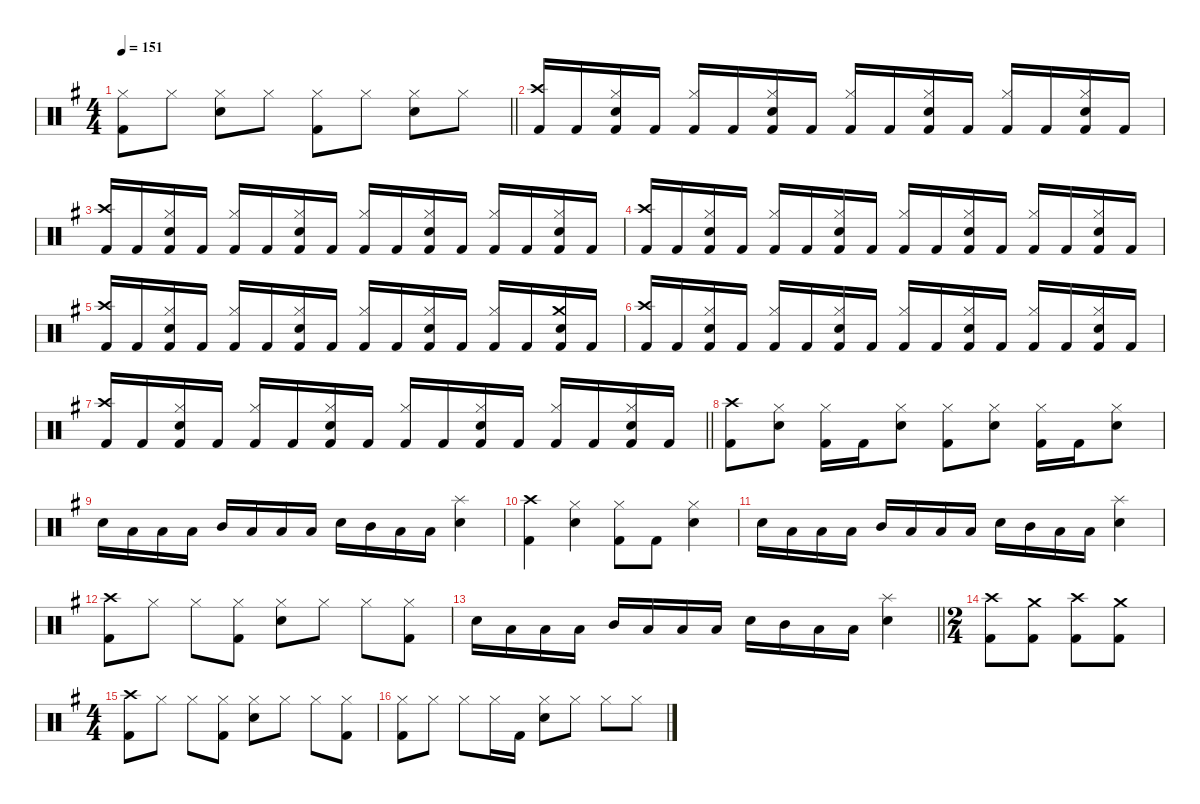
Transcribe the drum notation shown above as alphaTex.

\defaultSystemsLayout 4
\hideDynamics
\bracketExtendMode nobrackets
\singleTrackTrackNamePolicy hidden
\multiTrackTrackNamePolicy hidden
\otherSystemsTrackNameOrientation horizontal
\track ("Lars Ulrich" "drm.") {instrument percussion}
\staff {score}
\articulation defaults
\ts (4 4)
\tempo 151
\clef neutral
\barLineRight lightlight
\ks eminor
("Hi-Hat (closed)"{acc forcenatural} "Kick (hit) 2"{acc forcenatural}).8{dy f beam Down} "Hi-Hat (closed)"{acc forcenatural}.8{beam Down} ("Hi-Hat (closed)"{acc forcenatural} "Snare (hit) 2"{acc forcenatural}).8{beam Down} "Hi-Hat (closed)"{acc forcenatural}.8{beam Down} ("Hi-Hat (closed)"{acc forcenatural} "Kick (hit) 2"{acc forcenatural}).8{beam Down} "Hi-Hat (closed)"{acc forcenatural}.8{beam Down} ("Hi-Hat (closed)"{acc forcenatural} "Snare (hit) 2"{acc forcenatural}).8{beam Down} "Hi-Hat (closed)"{acc forcenatural}.8{beam Down} |
("Crash high (hit)"{acc forcenatural} "Kick (hit) 2"{acc forcenatural}).16{beam Up} "Kick (hit) 2"{acc forcenatural}.16{beam Up} ("Hi-Hat (closed)"{acc forcenatural} "Snare (hit) 2"{acc forcenatural} "Kick (hit) 2"{acc forcenatural}).16{beam Up} "Kick (hit) 2"{acc forcenatural}.16{beam Up} ("Hi-Hat (closed)"{acc forcenatural} "Kick (hit) 2"{acc forcenatural}).16{beam Up} "Kick (hit) 2"{acc forcenatural}.16{beam Up} ("Hi-Hat (closed)"{acc forcenatural} "Snare (hit) 2"{acc forcenatural} "Kick (hit) 2"{acc forcenatural}).16{beam Up} "Kick (hit) 2"{acc forcenatural}.16{beam Up} ("Hi-Hat (closed)"{acc forcenatural} "Kick (hit) 2"{acc forcenatural}).16{beam Up} "Kick (hit) 2"{acc forcenatural}.16{beam Up} ("Hi-Hat (closed)"{acc forcenatural} "Snare (hit) 2"{acc forcenatural} "Kick (hit) 2"{acc forcenatural}).16{beam Up} "Kick (hit) 2"{acc forcenatural}.16{beam Up} ("Hi-Hat (closed)"{acc forcenatural} "Kick (hit) 2"{acc forcenatural}).16{beam Up} "Kick (hit) 2"{acc forcenatural}.16{beam Up} ("Hi-Hat (closed)"{acc forcenatural} "Snare (hit) 2"{acc forcenatural} "Kick (hit) 2"{acc forcenatural}).16{beam Up} "Kick (hit) 2"{acc forcenatural}.16{beam Up} |
("Crash high (hit)"{acc forcenatural} "Kick (hit) 2"{acc forcenatural}).16{beam Up} "Kick (hit) 2"{acc forcenatural}.16{beam Up} ("Hi-Hat (closed)"{acc forcenatural} "Snare (hit) 2"{acc forcenatural} "Kick (hit) 2"{acc forcenatural}).16{beam Up} "Kick (hit) 2"{acc forcenatural}.16{beam Up} ("Hi-Hat (closed)"{acc forcenatural} "Kick (hit) 2"{acc forcenatural}).16{beam Up} "Kick (hit) 2"{acc forcenatural}.16{beam Up} ("Hi-Hat (closed)"{acc forcenatural} "Snare (hit) 2"{acc forcenatural} "Kick (hit) 2"{acc forcenatural}).16{beam Up} "Kick (hit) 2"{acc forcenatural}.16{beam Up} ("Hi-Hat (closed)"{acc forcenatural} "Kick (hit) 2"{acc forcenatural}).16{beam Up} "Kick (hit) 2"{acc forcenatural}.16{beam Up} ("Hi-Hat (closed)"{acc forcenatural} "Snare (hit) 2"{acc forcenatural} "Kick (hit) 2"{acc forcenatural}).16{beam Up} "Kick (hit) 2"{acc forcenatural}.16{beam Up} ("Hi-Hat (closed)"{acc forcenatural} "Kick (hit) 2"{acc forcenatural}).16{beam Up} "Kick (hit) 2"{acc forcenatural}.16{beam Up} ("Hi-Hat (closed)"{acc forcenatural} "Snare (hit) 2"{acc forcenatural} "Kick (hit) 2"{acc forcenatural}).16{beam Up} "Kick (hit) 2"{acc forcenatural}.16{beam Up} |
("Crash high (hit)"{acc forcenatural} "Kick (hit) 2"{acc forcenatural}).16{beam Up} "Kick (hit) 2"{acc forcenatural}.16{beam Up} ("Hi-Hat (closed)"{acc forcenatural} "Snare (hit) 2"{acc forcenatural} "Kick (hit) 2"{acc forcenatural}).16{beam Up} "Kick (hit) 2"{acc forcenatural}.16{beam Up} ("Hi-Hat (closed)"{acc forcenatural} "Kick (hit) 2"{acc forcenatural}).16{beam Up} "Kick (hit) 2"{acc forcenatural}.16{beam Up} ("Hi-Hat (closed)"{acc forcenatural} "Snare (hit) 2"{acc forcenatural} "Kick (hit) 2"{acc forcenatural}).16{beam Up} "Kick (hit) 2"{acc forcenatural}.16{beam Up} ("Hi-Hat (closed)"{acc forcenatural} "Kick (hit) 2"{acc forcenatural}).16{beam Up} "Kick (hit) 2"{acc forcenatural}.16{beam Up} ("Hi-Hat (closed)"{acc forcenatural} "Snare (hit) 2"{acc forcenatural} "Kick (hit) 2"{acc forcenatural}).16{beam Up} "Kick (hit) 2"{acc forcenatural}.16{beam Up} ("Hi-Hat (closed)"{acc forcenatural} "Kick (hit) 2"{acc forcenatural}).16{beam Up} "Kick (hit) 2"{acc forcenatural}.16{beam Up} ("Hi-Hat (closed)"{acc forcenatural} "Snare (hit) 2"{acc forcenatural} "Kick (hit) 2"{acc forcenatural}).16{beam Up} "Kick (hit) 2"{acc forcenatural}.16{beam Up} |
("Crash high (hit)"{acc forcenatural} "Kick (hit) 2"{acc forcenatural}).16{beam Up} "Kick (hit) 2"{acc forcenatural}.16{beam Up} ("Hi-Hat (closed)"{acc forcenatural} "Snare (hit) 2"{acc forcenatural} "Kick (hit) 2"{acc forcenatural}).16{beam Up} "Kick (hit) 2"{acc forcenatural}.16{beam Up} ("Hi-Hat (closed)"{acc forcenatural} "Kick (hit) 2"{acc forcenatural}).16{beam Up} "Kick (hit) 2"{acc forcenatural}.16{beam Up} ("Hi-Hat (closed)"{acc forcenatural} "Snare (hit) 2"{acc forcenatural} "Kick (hit) 2"{acc forcenatural}).16{beam Up} "Kick (hit) 2"{acc forcenatural}.16{beam Up} ("Hi-Hat (closed)"{acc forcenatural} "Kick (hit) 2"{acc forcenatural}).16{beam Up} "Kick (hit) 2"{acc forcenatural}.16{beam Up} ("Hi-Hat (closed)"{acc forcenatural} "Snare (hit) 2"{acc forcenatural} "Kick (hit) 2"{acc forcenatural}).16{beam Up} "Kick (hit) 2"{acc forcenatural}.16{beam Up} ("Hi-Hat (closed)"{acc forcenatural} "Kick (hit) 2"{acc forcenatural}).16{beam Up} "Kick (hit) 2"{acc forcenatural}.16{beam Up} ("Crash medium (hit)"{acc forcenatural} "Snare (hit) 2"{acc forcenatural} "Kick (hit) 2"{acc forcenatural}).16{beam Up} "Kick (hit) 2"{acc forcenatural}.16{beam Up} |
("Crash high (hit)"{acc forcenatural} "Kick (hit) 2"{acc forcenatural}).16{beam Up} "Kick (hit) 2"{acc forcenatural}.16{beam Up} ("Hi-Hat (closed)"{acc forcenatural} "Snare (hit) 2"{acc forcenatural} "Kick (hit) 2"{acc forcenatural}).16{beam Up} "Kick (hit) 2"{acc forcenatural}.16{beam Up} ("Hi-Hat (closed)"{acc forcenatural} "Kick (hit) 2"{acc forcenatural}).16{beam Up} "Kick (hit) 2"{acc forcenatural}.16{beam Up} ("Hi-Hat (closed)"{acc forcenatural} "Snare (hit) 2"{acc forcenatural} "Kick (hit) 2"{acc forcenatural}).16{beam Up} "Kick (hit) 2"{acc forcenatural}.16{beam Up} ("Hi-Hat (closed)"{acc forcenatural} "Kick (hit) 2"{acc forcenatural}).16{beam Up} "Kick (hit) 2"{acc forcenatural}.16{beam Up} ("Hi-Hat (closed)"{acc forcenatural} "Snare (hit) 2"{acc forcenatural} "Kick (hit) 2"{acc forcenatural}).16{beam Up} "Kick (hit) 2"{acc forcenatural}.16{beam Up} ("Hi-Hat (closed)"{acc forcenatural} "Kick (hit) 2"{acc forcenatural}).16{beam Up} "Kick (hit) 2"{acc forcenatural}.16{beam Up} ("Hi-Hat (closed)"{acc forcenatural} "Snare (hit) 2"{acc forcenatural} "Kick (hit) 2"{acc forcenatural}).16{beam Up} "Kick (hit) 2"{acc forcenatural}.16{beam Up} |
\barLineRight lightlight
("Crash high (hit)"{acc forcenatural} "Kick (hit) 2"{acc forcenatural}).16{beam Up} "Kick (hit) 2"{acc forcenatural}.16{beam Up} ("Hi-Hat (closed)"{acc forcenatural} "Snare (hit) 2"{acc forcenatural} "Kick (hit) 2"{acc forcenatural}).16{beam Up} "Kick (hit) 2"{acc forcenatural}.16{beam Up} ("Hi-Hat (closed)"{acc forcenatural} "Kick (hit) 2"{acc forcenatural}).16{beam Up} "Kick (hit) 2"{acc forcenatural}.16{beam Up} ("Hi-Hat (closed)"{acc forcenatural} "Snare (hit) 2"{acc forcenatural} "Kick (hit) 2"{acc forcenatural}).16{beam Up} "Kick (hit) 2"{acc forcenatural}.16{beam Up} ("Hi-Hat (closed)"{acc forcenatural} "Kick (hit) 2"{acc forcenatural}).16{beam Up} "Kick (hit) 2"{acc forcenatural}.16{beam Up} ("Hi-Hat (closed)"{acc forcenatural} "Snare (hit) 2"{acc forcenatural} "Kick (hit) 2"{acc forcenatural}).16{beam Up} "Kick (hit) 2"{acc forcenatural}.16{beam Up} ("Hi-Hat (closed)"{acc forcenatural} "Kick (hit) 2"{acc forcenatural}).16{beam Up} "Kick (hit) 2"{acc forcenatural}.16{beam Up} ("Hi-Hat (closed)"{acc forcenatural} "Snare (hit) 2"{acc forcenatural} "Kick (hit) 2"{acc forcenatural}).16{beam Up} "Kick (hit) 2"{acc forcenatural}.16{beam Up} |
("Crash high (hit)"{acc forcenatural} "Kick (hit) 2"{acc forcenatural}).8{beam Down} ("Hi-Hat (closed)"{acc forcenatural} "Snare (hit) 2"{acc forcenatural}).8{beam Down} ("Hi-Hat (closed)"{acc forcenatural} "Kick (hit) 2"{acc forcenatural}).16{beam Down} "Kick (hit) 2"{acc forcenatural}.16{beam Down} ("Hi-Hat (closed)"{acc forcenatural} "Snare (hit) 2"{acc forcenatural}).8{beam Down} ("Hi-Hat (closed)"{acc forcenatural} "Kick (hit) 2"{acc forcenatural}).8{beam Down} ("Hi-Hat (closed)"{acc forcenatural} "Snare (hit) 2"{acc forcenatural}).8{beam Down} ("Hi-Hat (closed)"{acc forcenatural} "Kick (hit) 2"{acc forcenatural}).16{beam Down} "Kick (hit) 2"{acc forcenatural}.16{beam Down} ("Hi-Hat (closed)"{acc forcenatural} "Snare (hit) 2"{acc forcenatural}).8{beam Down} |
"Snare (hit) 2"{acc forcenatural}.16{beam Down} "Low Tom (hit)"{acc forcenatural}.16{beam Down} "Low Tom (hit)"{acc forcenatural}.16{beam Down} "Low Tom (hit)"{acc forcenatural}.16{beam Down} "Mid Tom (hit)"{acc forcenatural}.16{beam Up} "Low Tom (hit)"{acc forcenatural}.16{beam Up} "Low Tom (hit)"{acc forcenatural}.16{beam Up} "Low Tom (hit)"{acc forcenatural}.16{beam Up} "Snare (hit) 2"{acc forcenatural}.16{beam Down} "Mid Tom (hit)"{acc forcenatural}.16{beam Down} "Low Tom (hit)"{acc forcenatural}.16{beam Down} "Low Tom (hit)"{acc forcenatural}.16{beam Down} ("Splash (hit)"{acc forcenatural} "Snare (hit) 2"{acc forcenatural}).4{beam Down} |
("Crash high (hit)"{acc forcenatural} "Kick (hit) 2"{acc forcenatural}).4{beam Down} ("Hi-Hat (closed)"{acc forcenatural} "Snare (hit) 2"{acc forcenatural}).4{beam Down} ("Hi-Hat (closed)"{acc forcenatural} "Kick (hit) 2"{acc forcenatural}).8{beam Down} "Kick (hit) 2"{acc forcenatural}.8{beam Down} ("Hi-Hat (closed)"{acc forcenatural} "Snare (hit) 2"{acc forcenatural}).4{beam Down} |
"Snare (hit) 2"{acc forcenatural}.16{beam Down} "Low Tom (hit)"{acc forcenatural}.16{beam Down} "Low Tom (hit)"{acc forcenatural}.16{beam Down} "Low Tom (hit)"{acc forcenatural}.16{beam Down} "Mid Tom (hit)"{acc forcenatural}.16{beam Up} "Low Tom (hit)"{acc forcenatural}.16{beam Up} "Low Tom (hit)"{acc forcenatural}.16{beam Up} "Low Tom (hit)"{acc forcenatural}.16{beam Up} "Snare (hit) 2"{acc forcenatural}.16{beam Down} "Mid Tom (hit)"{acc forcenatural}.16{beam Down} "Low Tom (hit)"{acc forcenatural}.16{beam Down} "Low Tom (hit)"{acc forcenatural}.16{beam Down} ("Splash (hit)"{acc forcenatural} "Snare (hit) 2"{acc forcenatural}).4{beam Down} |
("Crash high (hit)"{acc forcenatural} "Kick (hit) 2"{acc forcenatural}).8{beam Down} "Hi-Hat (closed)"{acc forcenatural}.8{beam Down} "Hi-Hat (closed)"{acc forcenatural}.8{beam Down} ("Hi-Hat (closed)"{acc forcenatural} "Kick (hit) 2"{acc forcenatural}).8{beam Down} ("Hi-Hat (closed)"{acc forcenatural} "Snare (hit) 2"{acc forcenatural}).8{beam Down} "Hi-Hat (closed)"{acc forcenatural}.8{beam Down} "Hi-Hat (closed)"{acc forcenatural}.8{beam Down} ("Hi-Hat (closed)"{acc forcenatural} "Kick (hit) 2"{acc forcenatural}).8{beam Down} |
\barLineRight lightlight "Snare (hit) 2"{acc forcenatural}.16{beam Down} "Low Tom (hit)"{acc forcenatural}.16{beam Down} "Low Tom (hit)"{acc forcenatural}.16{beam Down} "Low Tom (hit)"{acc forcenatural}.16{beam Down} "Mid Tom (hit)"{acc forcenatural}.16{beam Up} "Low Tom (hit)"{acc forcenatural}.16{beam Up} "Low Tom (hit)"{acc forcenatural}.16{beam Up} "Low Tom (hit)"{acc forcenatural}.16{beam Up} "Snare (hit) 2"{acc forcenatural}.16{beam Down} "Mid Tom (hit)"{acc forcenatural}.16{beam Down} "Low Tom (hit)"{acc forcenatural}.16{beam Down} "Low Tom (hit)"{acc forcenatural}.16{beam Down}
("Splash (hit)"{acc forcenatural} "Snare (hit) 2"{acc forcenatural}).4{beam Down} |
\ts (2 4)
\beaming (8 2 2)
("Crash high (hit)"{acc forcenatural} "Kick (hit) 2"{acc forcenatural}).8{beam Down} ("Crash medium (hit)"{acc forcenatural} "Kick (hit) 2"{acc forcenatural}).8{beam Down} ("Crash high (hit)"{acc forcenatural} "Kick (hit) 2"{acc forcenatural}).8{beam Down} ("Crash medium (hit)"{acc forcenatural} "Kick (hit) 2"{acc forcenatural}).8{beam Down} |
\ts (4 4)
\beaming (8 2 2 2 2)
("Crash high (hit)"{acc forcenatural} "Kick (hit) 2"{acc forcenatural}).8{beam Down} "Hi-Hat (closed)"{acc forcenatural}.8{beam Down} "Hi-Hat (closed)"{acc forcenatural}.8{beam Down} ("Hi-Hat (closed)"{acc forcenatural} "Kick (hit) 2"{acc forcenatural}).8{beam Down} ("Hi-Hat (closed)"{acc forcenatural} "Snare (hit) 2"{acc forcenatural}).8{beam Down} "Hi-Hat (closed)"{acc forcenatural}.8{beam Down} "Hi-Hat (closed)"{acc forcenatural}.8{beam Down} ("Hi-Hat (closed)"{acc forcenatural} "Kick (hit) 2"{acc forcenatural}).8{beam Down} |
("Hi-Hat (closed)"{acc forcenatural} "Kick (hit) 2"{acc forcenatural}).8{beam Down} "Hi-Hat (closed)"{acc forcenatural}.8{beam Down} "Hi-Hat (closed)"{acc forcenatural}.8{beam Down} "Hi-Hat (closed)"{acc forcenatural}.16{beam Down} "Kick (hit) 2"{acc forcenatural}.16{beam Down} ("Hi-Hat (closed)"{acc forcenatural} "Snare (hit) 2"{acc forcenatural}).8{beam Down} "Hi-Hat (closed)"{acc forcenatural}.8{beam Down} "Hi-Hat (closed)"{acc forcenatural}.8{beam Down} "Hi-Hat (closed)"{acc forcenatural}.8{beam Down}
